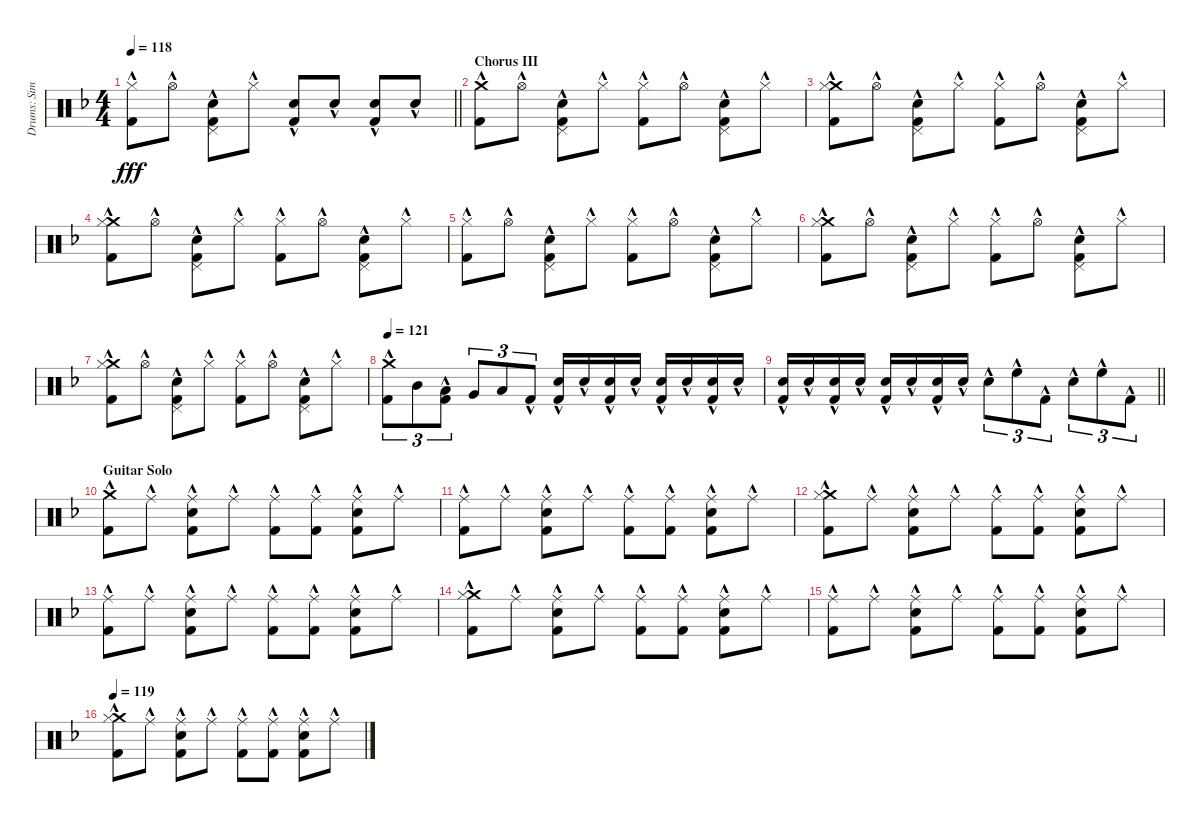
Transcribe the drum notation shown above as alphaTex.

\track ("Drums: Simon" "Drums: Sim") {instrument percussion}
\staff {score}
\articulation defaults
\ts (4 4)
\tempo 118
\clef neutral
\barLineRight lightlight
\ks f
("Hi-Hat (closed)"{hac} "Kick (hit) 2"{hac}).8{dy fff} "Hi-Hat (open)"{hac}.8 ("Pedal Hi-Hat (hit)"{hac} "Snare (hit) 2"{hac} "Kick (hit) 2"{hac}).8 "Hi-Hat (closed)"{hac}.8 ("Snare (hit) 2"{hac} "Kick (hit) 2"{hac}).8 "Snare (hit) 2"{hac}.8 ("Snare (hit) 2"{hac} "Kick (hit) 2"{hac}).8 "Snare (hit) 2"{hac}.8 |
\section ("" "Chorus III")
("Crash medium (hit)"{hac} "Kick (hit) 2"{hac}).8 "Hi-Hat (open)"{hac}.8 ("Pedal Hi-Hat (hit)"{hac} "Snare (hit) 2"{hac} "Kick (hit) 2"{hac}).8 "Hi-Hat (closed)"{hac}.8 ("Hi-Hat (closed)"{hac} "Kick (hit) 2"{hac}).8 "Hi-Hat (open)"{hac}.8 ("Pedal Hi-Hat (hit)"{hac} "Snare (hit) 2"{hac} "Kick (hit) 2"{hac}).8 "Hi-Hat (closed)"{hac}.8 |
("Crash medium (hit)"{hac} "Hi-Hat (closed)"{hac} "Kick (hit) 2"{hac}).8 "Hi-Hat (open)"{hac}.8 ("Pedal Hi-Hat (hit)"{hac} "Snare (hit) 2"{hac} "Kick (hit) 2"{hac}).8 "Hi-Hat (closed)"{hac}.8 ("Hi-Hat (closed)"{hac} "Kick (hit) 2"{hac}).8 "Hi-Hat (open)"{hac}.8 ("Pedal Hi-Hat (hit)"{hac} "Snare (hit) 2"{hac} "Kick (hit) 2"{hac}).8 "Hi-Hat (closed)"{hac}.8 |
("Crash medium (hit)"{hac} "Hi-Hat (closed)"{hac} "Kick (hit) 2"{hac}).8 "Hi-Hat (open)"{hac}.8 ("Pedal Hi-Hat (hit)"{hac} "Snare (hit) 2"{hac} "Kick (hit) 2"{hac}).8 "Hi-Hat (closed)"{hac}.8 ("Hi-Hat (closed)"{hac} "Kick (hit) 2"{hac}).8 "Hi-Hat (open)"{hac}.8 ("Pedal Hi-Hat (hit)"{hac} "Snare (hit) 2"{hac} "Kick (hit) 2"{hac}).8 "Hi-Hat (closed)"{hac}.8 |
("Hi-Hat (closed)"{hac} "Kick (hit) 2"{hac}).8 "Hi-Hat (open)"{hac}.8 ("Pedal Hi-Hat (hit)"{hac} "Snare (hit) 2"{hac} "Kick (hit) 2"{hac}).8 "Hi-Hat (closed)"{hac}.8 ("Hi-Hat (closed)"{hac} "Kick (hit) 2"{hac}).8 "Hi-Hat (open)"{hac}.8 ("Pedal Hi-Hat (hit)"{hac} "Snare (hit) 2"{hac} "Kick (hit) 2"{hac}).8 "Hi-Hat (closed)"{hac}.8 |
("Crash medium (hit)"{hac} "Hi-Hat (closed)"{hac} "Kick (hit) 2"{hac}).8 "Hi-Hat (open)"{hac}.8 ("Pedal Hi-Hat (hit)"{hac} "Snare (hit) 2"{hac} "Kick (hit) 2"{hac}).8 "Hi-Hat (closed)"{hac}.8 ("Hi-Hat (closed)"{hac} "Kick (hit) 2"{hac}).8 "Hi-Hat (open)"{hac}.8 ("Pedal Hi-Hat (hit)"{hac} "Snare (hit) 2"{hac} "Kick (hit) 2"{hac}).8 "Hi-Hat (closed)"{hac}.8 |
("Crash medium (hit)"{hac} "Hi-Hat (closed)"{hac} "Kick (hit) 2"{hac}).8 "Hi-Hat (open)"{hac}.8 ("Pedal Hi-Hat (hit)"{hac} "Snare (hit) 2"{hac} "Kick (hit) 2"{hac}).8 "Hi-Hat (closed)"{hac}.8 ("Hi-Hat (closed)"{hac} "Kick (hit) 2"{hac}).8 "Hi-Hat (open)"{hac}.8 ("Pedal Hi-Hat (hit)"{hac} "Snare (hit) 2"{hac} "Kick (hit) 2"{hac}).8 "Hi-Hat (closed)"{hac}.8 |
\tempo 121
("Crash medium (hit)"{hac} "Kick (hit) 2"{hac}).8{tu (3 2)} "Mid Tom (hit)".8{tu (3 2)} ("Low Tom (hit)" "Kick (hit) 2"{hac}).8{tu (3 2)} "Very Low Tom (hit)".8{tu (3 2)} "Low Floor Tom (hit)".8{tu (3 2)} "Kick (hit) 2"{hac}.8{tu (3 2)} ("Snare (hit) 2"{hac} "Kick (hit) 2"{hac}).16 "Snare (hit) 2"{hac}.16 ("Snare (hit) 2"{hac} "Kick (hit) 2"{hac}).16 "Snare (hit) 2"{hac}.16 ("Snare (hit) 2"{hac} "Kick (hit) 2"{hac}).16 "Snare (hit) 2"{hac}.16 ("Snare (hit) 2"{hac} "Kick (hit) 2"{hac}).16 "Snare (hit) 2"{hac}.16 |
\barLineRight lightlight
("Snare (hit) 2"{hac} "Kick (hit) 2"{hac}).16 "Snare (hit) 2"{hac}.16 ("Snare (hit) 2"{hac} "Kick (hit) 2"{hac}).16 "Snare (hit) 2"{hac}.16 ("Snare (hit) 2"{hac} "Kick (hit) 2"{hac}).16 "Snare (hit) 2"{hac}.16 ("Snare (hit) 2"{hac} "Kick (hit) 2"{hac}).16 "Snare (hit) 2"{hac}.16 "Snare (hit) 2"{hac}.8{tu (3 2)} "High Floor Tom (hit)"{hac}.8{tu (3 2)} "Kick (hit) 2"{hac}.8{tu (3 2)} "Snare (hit) 2"{hac}.8{tu (3 2)} "High Floor Tom (hit)"{hac}.8{tu (3 2)} "Kick (hit) 2"{hac}.8{tu (3 2)} |
\section ("" "Guitar Solo")
("Crash medium (hit)"{hac} "Kick (hit) 2"{hac}).8 "Ride (middle)"{hac}.8 ("Ride (middle)"{hac} "Snare (hit) 2"{hac} "Kick (hit) 2"{hac}).8 "Ride (middle)"{hac}.8 ("Ride (middle)"{hac} "Kick (hit) 2"{hac}).8 ("Ride (middle)"{hac} "Kick (hit) 2"{hac}).8 ("Ride (middle)"{hac} "Snare (hit) 2"{hac} "Kick (hit) 2"{hac}).8 "Ride (middle)"{hac}.8 |
("Ride (middle)"{hac} "Kick (hit) 2"{hac}).8 "Ride (middle)"{hac}.8 ("Ride (middle)"{hac} "Snare (hit) 2"{hac} "Kick (hit) 2"{hac}).8 "Ride (middle)"{hac}.8 ("Ride (middle)"{hac} "Kick (hit) 2"{hac}).8 ("Ride (middle)"{hac} "Kick (hit) 2"{hac}).8 ("Ride (middle)"{hac} "Snare (hit) 2"{hac} "Kick (hit) 2"{hac}).8 "Ride (middle)"{hac}.8 |
("Crash medium (hit)"{hac} "Hi-Hat (closed)"{hac} "Kick (hit) 2"{hac}).8 "Ride (middle)"{hac}.8 ("Ride (middle)"{hac} "Snare (hit) 2"{hac} "Kick (hit) 2"{hac}).8 "Ride (middle)"{hac}.8 ("Ride (middle)"{hac} "Kick (hit) 2"{hac}).8 ("Ride (middle)"{hac} "Kick (hit) 2"{hac}).8 ("Ride (middle)"{hac} "Snare (hit) 2"{hac} "Kick (hit) 2"{hac}).8 "Ride (middle)"{hac}.8 |
("Ride (middle)"{hac} "Kick (hit) 2"{hac}).8 "Ride (middle)"{hac}.8 ("Ride (middle)"{hac} "Snare (hit) 2"{hac} "Kick (hit) 2"{hac}).8 "Ride (middle)"{hac}.8 ("Ride (middle)"{hac} "Kick (hit) 2"{hac}).8 ("Ride (middle)"{hac} "Kick (hit) 2"{hac}).8 ("Ride (middle)"{hac} "Snare (hit) 2"{hac} "Kick (hit) 2"{hac}).8 "Ride (middle)"{hac}.8 |
("Crash medium (hit)"{hac} "Hi-Hat (closed)"{hac} "Kick (hit) 2"{hac}).8 "Ride (middle)"{hac}.8 ("Ride (middle)"{hac} "Snare (hit) 2"{hac} "Kick (hit) 2"{hac}).8 "Ride (middle)"{hac}.8 ("Ride (middle)"{hac} "Kick (hit) 2"{hac}).8 ("Ride (middle)"{hac} "Kick (hit) 2"{hac}).8 ("Ride (middle)"{hac} "Snare (hit) 2"{hac} "Kick (hit) 2"{hac}).8 "Ride (middle)"{hac}.8 |
("Ride (middle)"{hac} "Kick (hit) 2"{hac}).8 "Ride (middle)"{hac}.8 ("Ride (middle)"{hac} "Snare (hit) 2"{hac} "Kick (hit) 2"{hac}).8 "Ride (middle)"{hac}.8 ("Ride (middle)"{hac} "Kick (hit) 2"{hac}).8 ("Ride (middle)"{hac} "Kick (hit) 2"{hac}).8 ("Ride (middle)"{hac} "Snare (hit) 2"{hac} "Kick (hit) 2"{hac}).8 "Ride (middle)"{hac}.8 |
\tempo 119
("Crash medium (hit)"{hac} "Hi-Hat (closed)"{hac} "Kick (hit) 2"{hac}).8 "Ride (middle)"{hac}.8 ("Ride (middle)"{hac} "Snare (hit) 2"{hac} "Kick (hit) 2"{hac}).8 "Ride (middle)"{hac}.8 ("Ride (middle)"{hac} "Kick (hit) 2"{hac}).8 ("Ride (middle)"{hac} "Kick (hit) 2"{hac}).8 ("Ride (middle)"{hac} "Snare (hit) 2"{hac} "Kick (hit) 2"{hac}).8 "Ride (middle)"{hac}.8
